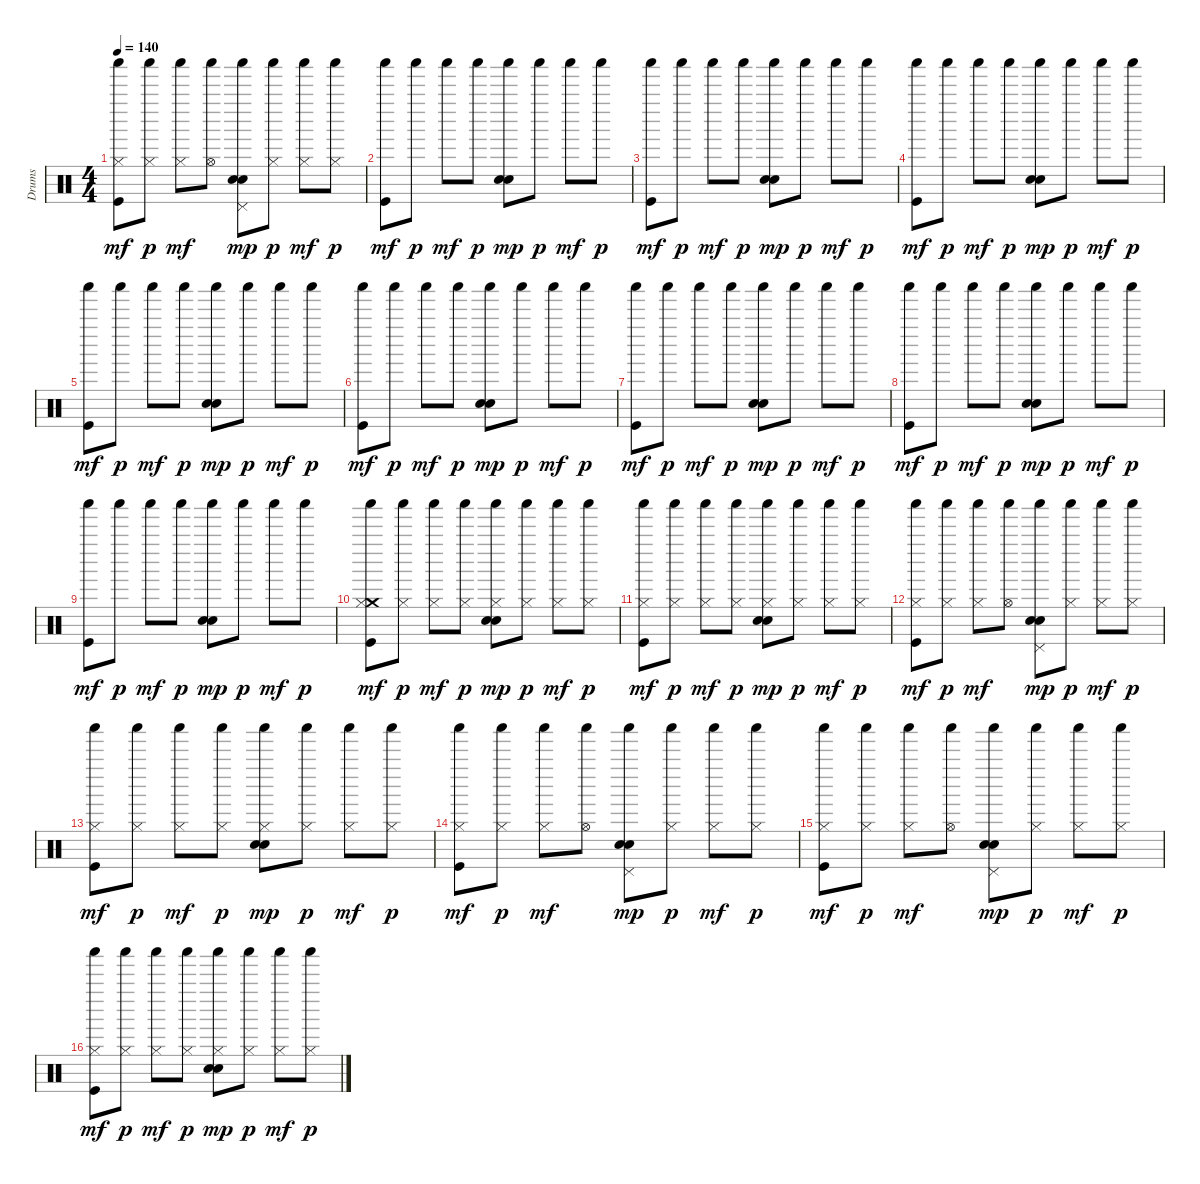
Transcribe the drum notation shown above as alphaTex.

\track ("Drums" "Drums") {instrument percussion}
\staff {score}
\articulation defaults
\ts (4 4)
\tempo 140
\clef neutral
\ks c
("Shaker (hit)" "Hi-Hat (closed)" "Kick (hit)").8{dy mf} ("Shaker (hit)" "Hi-Hat (closed)").8{dy p} ("Shaker (hit)" "Hi-Hat (closed)").8{dy mf} ("Shaker (hit)" "Hi-Hat (open)").8 ("Shaker (hit)" "Pedal Hi-Hat (hit)" "Hand Clap (hit)" "Snare (hit) 2").8{dy mp} ("Shaker (hit)" "Hi-Hat (closed)").8{dy p} ("Shaker (hit)" "Hi-Hat (closed)").8{dy mf} ("Shaker (hit)" "Hi-Hat (closed)").8{dy p} |
("Shaker (hit)" "Kick (hit)").8{dy mf} "Shaker (hit)".8{dy p} "Shaker (hit)".8{dy mf} "Shaker (hit)".8{dy p} ("Shaker (hit)" "Hand Clap (hit)" "Snare (hit) 2").8{dy mp} "Shaker (hit)".8{dy p} "Shaker (hit)".8{dy mf} "Shaker (hit)".8{dy p} |
("Shaker (hit)" "Kick (hit)").8{dy mf} "Shaker (hit)".8{dy p} "Shaker (hit)".8{dy mf} "Shaker (hit)".8{dy p} ("Shaker (hit)" "Hand Clap (hit)" "Snare (hit) 2").8{dy mp} "Shaker (hit)".8{dy p} "Shaker (hit)".8{dy mf} "Shaker (hit)".8{dy p} |
("Shaker (hit)" "Kick (hit)").8{dy mf} "Shaker (hit)".8{dy p} "Shaker (hit)".8{dy mf} "Shaker (hit)".8{dy p} ("Shaker (hit)" "Hand Clap (hit)" "Snare (hit) 2").8{dy mp} "Shaker (hit)".8{dy p} "Shaker (hit)".8{dy mf} "Shaker (hit)".8{dy p} |
("Shaker (hit)" "Kick (hit)").8{dy mf} "Shaker (hit)".8{dy p} "Shaker (hit)".8{dy mf} "Shaker (hit)".8{dy p} ("Shaker (hit)" "Hand Clap (hit)" "Snare (hit) 2").8{dy mp} "Shaker (hit)".8{dy p} "Shaker (hit)".8{dy mf} "Shaker (hit)".8{dy p} |
("Shaker (hit)" "Kick (hit)").8{dy mf} "Shaker (hit)".8{dy p} "Shaker (hit)".8{dy mf} "Shaker (hit)".8{dy p} ("Shaker (hit)" "Hand Clap (hit)" "Snare (hit) 2").8{dy mp} "Shaker (hit)".8{dy p} "Shaker (hit)".8{dy mf} "Shaker (hit)".8{dy p} |
("Shaker (hit)" "Kick (hit)").8{dy mf} "Shaker (hit)".8{dy p} "Shaker (hit)".8{dy mf} "Shaker (hit)".8{dy p} ("Shaker (hit)" "Hand Clap (hit)" "Snare (hit) 2").8{dy mp} "Shaker (hit)".8{dy p} "Shaker (hit)".8{dy mf} "Shaker (hit)".8{dy p} |
("Shaker (hit)" "Kick (hit)").8{dy mf} "Shaker (hit)".8{dy p} "Shaker (hit)".8{dy mf} "Shaker (hit)".8{dy p} ("Shaker (hit)" "Hand Clap (hit)" "Snare (hit) 2").8{dy mp} "Shaker (hit)".8{dy p} "Shaker (hit)".8{dy mf} "Shaker (hit)".8{dy p} |
("Shaker (hit)" "Kick (hit)").8{dy mf} "Shaker (hit)".8{dy p} "Shaker (hit)".8{dy mf} "Shaker (hit)".8{dy p} ("Shaker (hit)" "Hand Clap (hit)" "Snare (hit) 2").8{dy mp} "Shaker (hit)".8{dy p} "Shaker (hit)".8{dy mf} "Shaker (hit)".8{dy p} |
("Crash medium (hit)" "Shaker (hit)" "Hi-Hat (closed)" "Kick (hit)").8{dy mf} ("Shaker (hit)" "Hi-Hat (closed)").8{dy p} ("Shaker (hit)" "Hi-Hat (closed)").8{dy mf} ("Shaker (hit)" "Hi-Hat (closed)").8{dy p} ("Shaker (hit)" "Hi-Hat (closed)" "Hand Clap (hit)" "Snare (hit) 2").8{dy mp} ("Shaker (hit)" "Hi-Hat (closed)").8{dy p} ("Shaker (hit)" "Hi-Hat (closed)").8{dy mf} ("Shaker (hit)" "Hi-Hat (closed)").8{dy p} |
("Shaker (hit)" "Hi-Hat (closed)" "Kick (hit)").8{dy mf} ("Shaker (hit)" "Hi-Hat (closed)").8{dy p} ("Shaker (hit)" "Hi-Hat (closed)").8{dy mf} ("Shaker (hit)" "Hi-Hat (closed)").8{dy p} ("Shaker (hit)" "Hi-Hat (closed)" "Hand Clap (hit)" "Snare (hit) 2").8{dy mp} ("Shaker (hit)" "Hi-Hat (closed)").8{dy p} ("Shaker (hit)" "Hi-Hat (closed)").8{dy mf} ("Shaker (hit)" "Hi-Hat (closed)").8{dy p} |
("Shaker (hit)" "Hi-Hat (closed)" "Kick (hit)").8{dy mf} ("Shaker (hit)" "Hi-Hat (closed)").8{dy p} ("Shaker (hit)" "Hi-Hat (closed)").8{dy mf} ("Shaker (hit)" "Hi-Hat (open)").8 ("Shaker (hit)" "Pedal Hi-Hat (hit)" "Hand Clap (hit)" "Snare (hit) 2").8{dy mp} ("Shaker (hit)" "Hi-Hat (closed)").8{dy p} ("Shaker (hit)" "Hi-Hat (closed)").8{dy mf} ("Shaker (hit)" "Hi-Hat (closed)").8{dy p} |
("Shaker (hit)" "Hi-Hat (closed)" "Kick (hit)").8{dy mf} ("Shaker (hit)" "Hi-Hat (closed)").8{dy p} ("Shaker (hit)" "Hi-Hat (closed)").8{dy mf} ("Shaker (hit)" "Hi-Hat (closed)").8{dy p} ("Shaker (hit)" "Hi-Hat (closed)" "Hand Clap (hit)" "Snare (hit) 2").8{dy mp} ("Shaker (hit)" "Hi-Hat (closed)").8{dy p} ("Shaker (hit)" "Hi-Hat (closed)").8{dy mf} ("Shaker (hit)" "Hi-Hat (closed)").8{dy p} |
("Shaker (hit)" "Hi-Hat (closed)" "Kick (hit)").8{dy mf} ("Shaker (hit)" "Hi-Hat (closed)").8{dy p} ("Shaker (hit)" "Hi-Hat (closed)").8{dy mf} ("Shaker (hit)" "Hi-Hat (open)").8 ("Shaker (hit)" "Pedal Hi-Hat (hit)" "Hand Clap (hit)" "Snare (hit) 2").8{dy mp} ("Shaker (hit)" "Hi-Hat (closed)").8{dy p} ("Shaker (hit)" "Hi-Hat (closed)").8{dy mf} ("Shaker (hit)" "Hi-Hat (closed)").8{dy p} |
("Shaker (hit)" "Hi-Hat (closed)" "Kick (hit)").8{dy mf} ("Shaker (hit)" "Hi-Hat (closed)").8{dy p} ("Shaker (hit)" "Hi-Hat (closed)").8{dy mf} ("Shaker (hit)" "Hi-Hat (open)").8 ("Shaker (hit)" "Pedal Hi-Hat (hit)" "Hand Clap (hit)" "Snare (hit) 2").8{dy mp} ("Shaker (hit)" "Hi-Hat (closed)").8{dy p} ("Shaker (hit)" "Hi-Hat (closed)").8{dy mf} ("Shaker (hit)" "Hi-Hat (closed)").8{dy p} |
("Shaker (hit)" "Hi-Hat (closed)" "Kick (hit)").8{dy mf} ("Shaker (hit)" "Hi-Hat (closed)").8{dy p} ("Shaker (hit)" "Hi-Hat (closed)").8{dy mf} ("Shaker (hit)" "Hi-Hat (closed)").8{dy p} ("Shaker (hit)" "Hi-Hat (closed)" "Hand Clap (hit)" "Snare (hit) 2").8{dy mp} ("Shaker (hit)" "Hi-Hat (closed)").8{dy p} ("Shaker (hit)" "Hi-Hat (closed)").8{dy mf} ("Shaker (hit)" "Hi-Hat (closed)").8{dy p}
